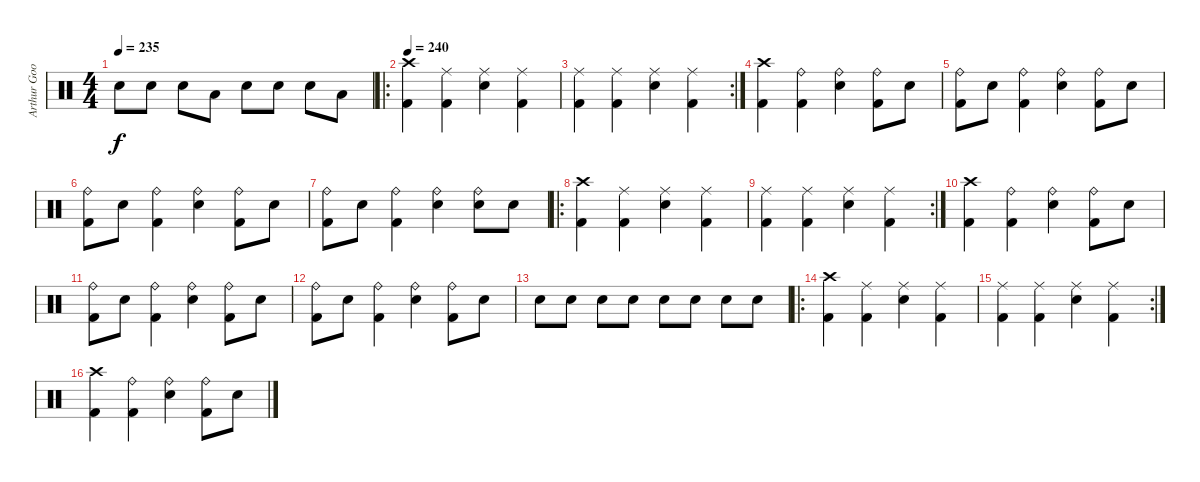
\track ("Arthur Googy" "Arthur Goo") {instrument percussion}
\staff {score}
\articulation defaults
\ts (4 4)
\tempo 235
\clef neutral
\ks c "Electric Snare (hit)".8{dy f} "Electric Snare (hit)".8 "Electric Snare (hit)".8 "Low Tom (hit)".8 "Electric Snare (hit)".8 "Electric Snare (hit)".8 "Electric Snare (hit)".8 "Low Tom (hit)".8
|
\ro
\tempo 240
("Crash high (hit)" "Kick (hit) 2").4 ("Ride (middle)" "Kick (hit) 2").4 ("Ride (middle)" "Electric Snare (hit)").4 ("Ride (middle)" "Kick (hit) 2").4 |
\rc 2
("Ride (middle)" "Kick (hit) 2").4 ("Ride (middle)" "Kick (hit) 2").4 ("Ride (middle)" "Electric Snare (hit)").4 ("Ride (middle)" "Kick (hit) 2").4 |
("Crash high (hit)" "Kick (hit) 2").4 ("Ride (bell)" "Kick (hit) 2").4 ("Ride (bell)" "Electric Snare (hit)").4 ("Ride (bell)" "Kick (hit) 2").8 "Electric Snare (hit)".8 |
("Ride (bell)" "Kick (hit) 2").8 "Electric Snare (hit)".8 ("Ride (bell)" "Kick (hit) 2").4 ("Ride (bell)" "Electric Snare (hit)").4 ("Ride (bell)" "Kick (hit) 2").8 "Electric Snare (hit)".8 |
("Ride (bell)" "Kick (hit) 2").8 "Electric Snare (hit)".8 ("Ride (bell)" "Kick (hit) 2").4 ("Ride (bell)" "Electric Snare (hit)").4 ("Ride (bell)" "Kick (hit) 2").8 "Electric Snare (hit)".8 |
("Ride (bell)" "Kick (hit) 2").8 "Electric Snare (hit)".8 ("Ride (bell)" "Kick (hit) 2").4 ("Ride (bell)" "Electric Snare (hit)").4 ("Ride (bell)" "Electric Snare (hit)").8 "Electric Snare (hit)".8 |
\ro
("Crash high (hit)" "Kick (hit) 2").4 ("Ride (middle)" "Kick (hit) 2").4 ("Ride (middle)" "Electric Snare (hit)").4 ("Ride (middle)" "Kick (hit) 2").4 |
\rc 2
("Ride (middle)" "Kick (hit) 2").4 ("Ride (middle)" "Kick (hit) 2").4 ("Ride (middle)" "Electric Snare (hit)").4 ("Ride (middle)" "Kick (hit) 2").4 |
("Crash high (hit)" "Kick (hit) 2").4 ("Ride (bell)" "Kick (hit) 2").4 ("Ride (bell)" "Electric Snare (hit)").4 ("Ride (bell)" "Kick (hit) 2").8 "Electric Snare (hit)".8 |
("Ride (bell)" "Kick (hit) 2").8 "Electric Snare (hit)".8 ("Ride (bell)" "Kick (hit) 2").4 ("Ride (bell)" "Electric Snare (hit)").4 ("Ride (bell)" "Kick (hit) 2").8 "Electric Snare (hit)".8 |
("Ride (bell)" "Kick (hit) 2").8 "Electric Snare (hit)".8 ("Ride (bell)" "Kick (hit) 2").4 ("Ride (bell)" "Electric Snare (hit)").4 ("Ride (bell)" "Kick (hit) 2").8 "Electric Snare (hit)".8 |
"Electric Snare (hit)".8 "Electric Snare (hit)".8 "Electric Snare (hit)".8 "Electric Snare (hit)".8 "Electric Snare (hit)".8 "Electric Snare (hit)".8 "Electric Snare (hit)".8 "Electric Snare (hit)".8 |
\ro
("Crash high (hit)" "Kick (hit) 2").4 ("Ride (middle)" "Kick (hit) 2").4 ("Ride (middle)" "Electric Snare (hit)").4 ("Ride (middle)" "Kick (hit) 2").4 |
\rc 2
("Ride (middle)" "Kick (hit) 2").4 ("Ride (middle)" "Kick (hit) 2").4 ("Ride (middle)" "Electric Snare (hit)").4 ("Ride (middle)" "Kick (hit) 2").4 |
("Crash high (hit)" "Kick (hit) 2").4 ("Ride (bell)" "Kick (hit) 2").4 ("Ride (bell)" "Electric Snare (hit)").4 ("Ride (bell)" "Kick (hit) 2").8 "Electric Snare (hit)".8
